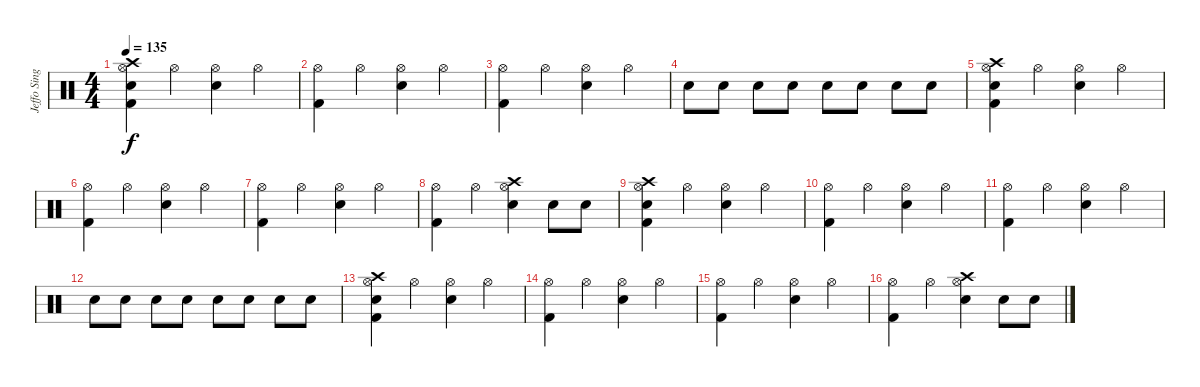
\track ("Jeffo Singer" "Jeffo Sing") {instrument percussion}
\staff {score}
\articulation defaults
\ts (4 4)
\tempo 135
\clef neutral
\ks c
("Hi-Hat (open)" "Kick (hit) 2" "Snare (hit) 2" "Crash high (hit)").4{dy f} "Hi-Hat (open)".4 ("Hi-Hat (open)" "Snare (hit) 2").4 "Hi-Hat (open)".4 |
("Hi-Hat (open)" "Kick (hit) 2").4 "Hi-Hat (open)".4 ("Hi-Hat (open)" "Snare (hit) 2").4 "Hi-Hat (open)".4 |
("Hi-Hat (open)" "Kick (hit) 2").4 "Hi-Hat (open)".4 ("Hi-Hat (open)" "Snare (hit) 2").4 "Hi-Hat (open)".4 |
"Snare (hit) 2".8 "Snare (hit) 2".8 "Snare (hit) 2".8 "Snare (hit) 2".8 "Snare (hit) 2".8 "Snare (hit) 2".8 "Snare (hit) 2".8 "Snare (hit) 2".8 |
("Hi-Hat (open)" "Kick (hit) 2" "Snare (hit) 2" "Crash high (hit)").4 "Hi-Hat (open)".4 ("Hi-Hat (open)" "Snare (hit) 2").4 "Hi-Hat (open)".4 |
("Hi-Hat (open)" "Kick (hit) 2").4 "Hi-Hat (open)".4 ("Hi-Hat (open)" "Snare (hit) 2").4 "Hi-Hat (open)".4 |
("Hi-Hat (open)" "Kick (hit) 2").4 "Hi-Hat (open)".4 ("Hi-Hat (open)" "Snare (hit) 2").4 "Hi-Hat (open)".4 |
("Hi-Hat (open)" "Kick (hit) 2").4 "Hi-Hat (open)".4 ("Hi-Hat (open)" "Snare (hit) 2" "Crash high (hit)").4 "Snare (hit) 2".8 "Snare (hit) 2".8 |
("Hi-Hat (open)" "Kick (hit) 2" "Snare (hit) 2" "Crash high (hit)").4 "Hi-Hat (open)".4 ("Hi-Hat (open)" "Snare (hit) 2").4 "Hi-Hat (open)".4 |
("Hi-Hat (open)" "Kick (hit) 2").4 "Hi-Hat (open)".4 ("Hi-Hat (open)" "Snare (hit) 2").4 "Hi-Hat (open)".4 |
("Hi-Hat (open)" "Kick (hit) 2").4 "Hi-Hat (open)".4 ("Hi-Hat (open)" "Snare (hit) 2").4 "Hi-Hat (open)".4 |
"Snare (hit) 2".8 "Snare (hit) 2".8 "Snare (hit) 2".8 "Snare (hit) 2".8 "Snare (hit) 2".8 "Snare (hit) 2".8 "Snare (hit) 2".8 "Snare (hit) 2".8 |
("Hi-Hat (open)" "Kick (hit) 2" "Snare (hit) 2" "Crash high (hit)").4 "Hi-Hat (open)".4 ("Hi-Hat (open)" "Snare (hit) 2").4 "Hi-Hat (open)".4 |
("Hi-Hat (open)" "Kick (hit) 2").4 "Hi-Hat (open)".4 ("Hi-Hat (open)" "Snare (hit) 2").4 "Hi-Hat (open)".4 |
("Hi-Hat (open)" "Kick (hit) 2").4 "Hi-Hat (open)".4 ("Hi-Hat (open)" "Snare (hit) 2").4 "Hi-Hat (open)".4 |
("Hi-Hat (open)" "Kick (hit) 2").4 "Hi-Hat (open)".4 ("Hi-Hat (open)" "Snare (hit) 2" "Crash high (hit)").4 "Snare (hit) 2".8 "Snare (hit) 2".8
